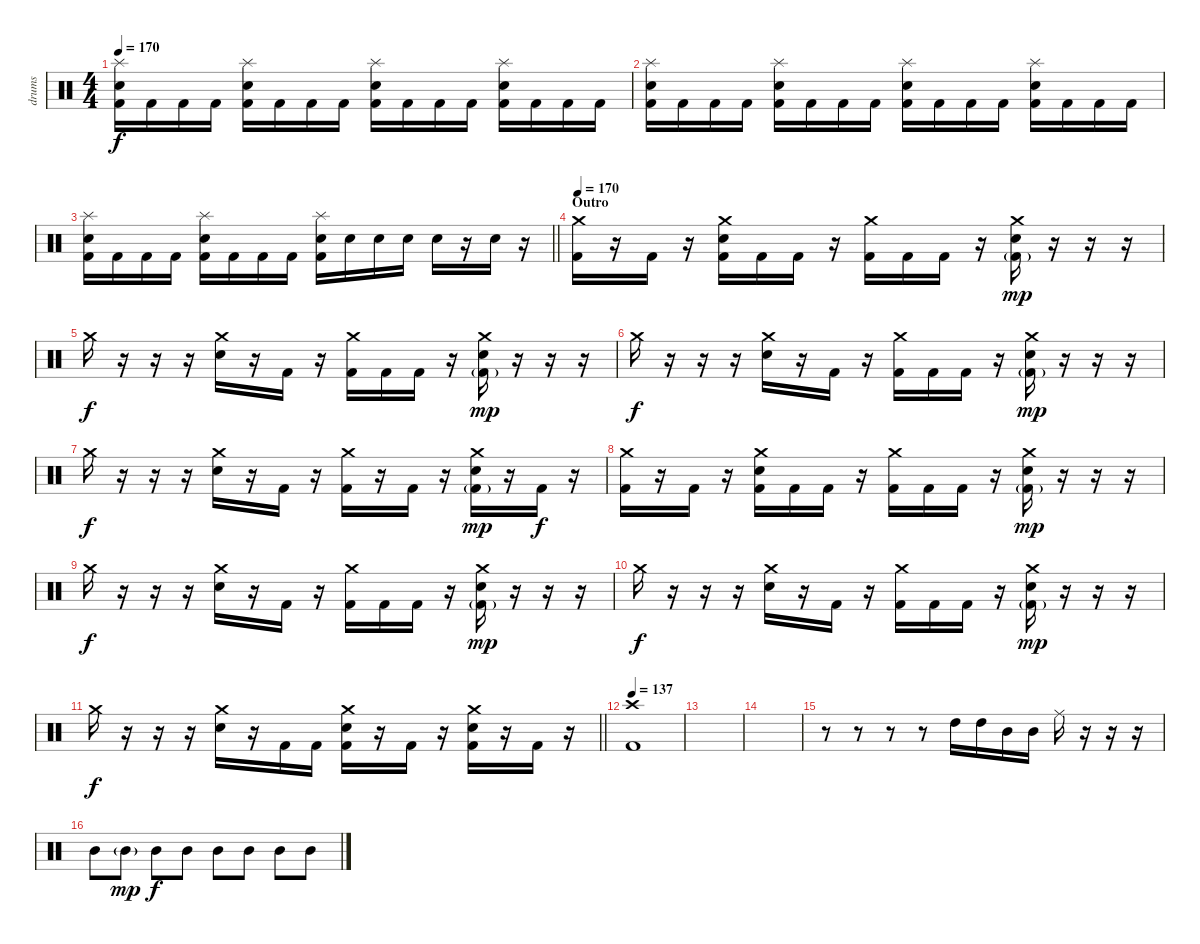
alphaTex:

\track ("drums" "drums") {instrument percussion}
\staff {score}
\articulation defaults
\ts (4 4)
\tempo 170
\clef neutral
\ks c
("Splash (hit)" "Snare (hit) 2" "Kick (hit) 2").16{dy f} "Kick (hit) 2".16 "Kick (hit) 2".16 "Kick (hit) 2".16 ("Splash (hit)" "Snare (hit) 2" "Kick (hit) 2").16 "Kick (hit) 2".16 "Kick (hit) 2".16 "Kick (hit) 2".16 ("Splash (hit)" "Snare (hit) 2" "Kick (hit) 2").16 "Kick (hit) 2".16 "Kick (hit) 2".16 "Kick (hit) 2".16 ("Splash (hit)" "Snare (hit) 2" "Kick (hit) 2").16 "Kick (hit) 2".16 "Kick (hit) 2".16 "Kick (hit) 2".16 |
("Splash (hit)" "Snare (hit) 2" "Kick (hit) 2").16 "Kick (hit) 2".16 "Kick (hit) 2".16 "Kick (hit) 2".16 ("Splash (hit)" "Snare (hit) 2" "Kick (hit) 2").16 "Kick (hit) 2".16 "Kick (hit) 2".16 "Kick (hit) 2".16 ("Splash (hit)" "Snare (hit) 2" "Kick (hit) 2").16 "Kick (hit) 2".16 "Kick (hit) 2".16 "Kick (hit) 2".16 ("Splash (hit)" "Snare (hit) 2" "Kick (hit) 2").16 "Kick (hit) 2".16 "Kick (hit) 2".16 "Kick (hit) 2".16 |
\barLineRight lightlight
("Splash (hit)" "Snare (hit) 2" "Kick (hit) 2").16 "Kick (hit) 2".16 "Kick (hit) 2".16 "Kick (hit) 2".16 ("Splash (hit)" "Snare (hit) 2" "Kick (hit) 2").16 "Kick (hit) 2".16 "Kick (hit) 2".16 "Kick (hit) 2".16 ("Splash (hit)" "Snare (hit) 2" "Kick (hit) 2").16 "Snare (hit) 2".16 "Snare (hit) 2".16 "Snare (hit) 2".16 "Snare (hit) 2".16 r.16 "Snare (hit) 2".16 r.16 |
\section ("" "Outro")
\tempo 170
("Crash medium (hit)" "Kick (hit) 2").16 r.16 "Kick (hit) 2".16 r.16 ("Crash medium (hit)" "Snare (hit) 2" "Kick (hit) 2").16 "Kick (hit) 2".16 "Kick (hit) 2".16 r.16 ("Crash medium (hit)" "Kick (hit) 2").16 "Kick (hit) 2".16 "Kick (hit) 2".16 r.16 ("Crash medium (hit)" "Snare (hit) 2" "Kick (hit) 2"{g}).16{dy mp} r.16 r.16 r.16 |
"Crash medium (hit)".16{dy f} r.16 r.16 r.16 ("Crash medium (hit)" "Snare (hit) 2").16 r.16 "Kick (hit) 2".16 r.16 ("Crash medium (hit)" "Kick (hit) 2").16 "Kick (hit) 2".16 "Kick (hit) 2".16 r.16 ("Crash medium (hit)" "Snare (hit) 2" "Kick (hit) 2"{g}).16{dy mp} r.16 r.16 r.16 |
"Crash medium (hit)".16{dy f} r.16 r.16 r.16 ("Crash medium (hit)" "Snare (hit) 2").16 r.16 "Kick (hit) 2".16 r.16 ("Crash medium (hit)" "Kick (hit) 2").16 "Kick (hit) 2".16 "Kick (hit) 2".16 r.16 ("Crash medium (hit)" "Snare (hit) 2" "Kick (hit) 2"{g}).16{dy mp} r.16 r.16 r.16 |
"Crash medium (hit)".16{dy f} r.16 r.16 r.16 ("Crash medium (hit)" "Snare (hit) 2").16 r.16 "Kick (hit) 2".16 r.16 ("Crash medium (hit)" "Kick (hit) 2").16 r.16 "Kick (hit) 2".16 r.16 ("Crash medium (hit)" "Snare (hit) 2" "Kick (hit) 2"{g}).16{dy mp} r.16 "Kick (hit) 2".16{dy f} r.16 |
("Crash medium (hit)" "Kick (hit) 2").16 r.16 "Kick (hit) 2".16 r.16 ("Crash medium (hit)" "Snare (hit) 2" "Kick (hit) 2").16 "Kick (hit) 2".16 "Kick (hit) 2".16 r.16 ("Crash medium (hit)" "Kick (hit) 2").16 "Kick (hit) 2".16 "Kick (hit) 2".16 r.16 ("Crash medium (hit)" "Snare (hit) 2" "Kick (hit) 2"{g}).16{dy mp} r.16 r.16 r.16 |
"Crash medium (hit)".16{dy f} r.16 r.16 r.16 ("Crash medium (hit)" "Snare (hit) 2").16 r.16 "Kick (hit) 2".16 r.16 ("Crash medium (hit)" "Kick (hit) 2").16 "Kick (hit) 2".16 "Kick (hit) 2".16 r.16 ("Crash medium (hit)" "Snare (hit) 2" "Kick (hit) 2"{g}).16{dy mp} r.16 r.16 r.16 |
"Crash medium (hit)".16{dy f} r.16 r.16 r.16 ("Crash medium (hit)" "Snare (hit) 2").16 r.16 "Kick (hit) 2".16 r.16 ("Crash medium (hit)" "Kick (hit) 2").16 "Kick (hit) 2".16 "Kick (hit) 2".16 r.16 ("Crash medium (hit)" "Snare (hit) 2" "Kick (hit) 2"{g}).16{dy mp} r.16 r.16 r.16 |
\barLineRight lightlight "Crash medium (hit)".16{dy f}
r.16 r.16 r.16 ("Crash medium (hit)" "Snare (hit) 2").16 r.16 "Kick (hit) 2".16 "Kick (hit) 2".16 ("Crash medium (hit)" "Snare (hit) 2" "Kick (hit) 2").16 r.16 "Kick (hit) 2".16 r.16 ("Crash medium (hit)" "Snare (hit) 2" "Kick (hit) 2").16 r.16 "Kick (hit) 2".16 r.16 |
\tempo 137
("Crash high (hit)" "Kick (hit) 2").1 |
|
|
r.8 r.8 r.8 r.8 "High Tom (hit)".16 "High Tom (hit)".16 "Mid Tom (hit)".16 "Mid Tom (hit)".16 "Ride (middle)".16 r.16 r.16 r.16 |
"Mid Tom (hit)".8 "Mid Tom (hit)"{g}.8{dy mp} "Mid Tom (hit)".8{dy f} "Mid Tom (hit)".8 "Mid Tom (hit)".8 "Mid Tom (hit)".8 "Mid Tom (hit)".8 "Mid Tom (hit)".8
